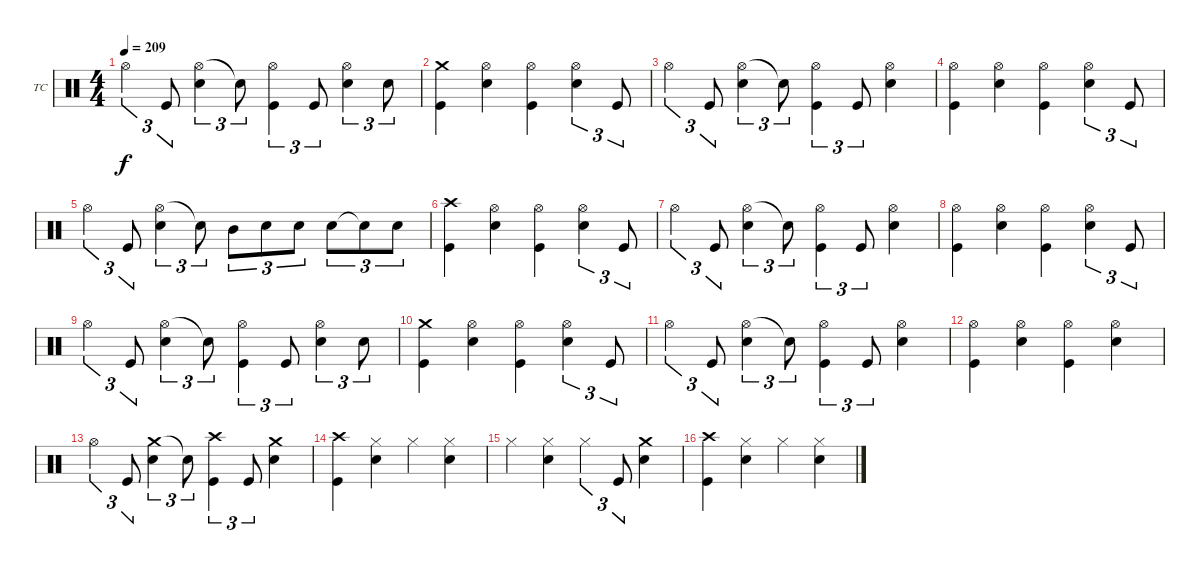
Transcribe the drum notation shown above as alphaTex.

\defaultSystemsLayout 4
\bracketExtendMode groupsimilarinstruments
\firstSystemTrackNameOrientation horizontal
\otherSystemsTrackNameOrientation horizontal
\track ("Drums - Tre Cool" "TC") {instrument percussion}
\staff {score}
\articulation defaults
\ts (4 4)
\tempo 209
\clef neutral
\ks c "Hi-Hat (open)".4{tu (3 2) dy f} "Kick (hit)".8{tu (3 2)}
("Hi-Hat (open)" "Snare (hit) 2").4{tu (3 2)} "Snare (hit) 2"{t}.8{tu (3 2)} ("Hi-Hat (open)" "Kick (hit)").4{tu (3 2)} "Kick (hit)".8{tu (3 2)} ("Hi-Hat (open)" "Snare (hit) 2").4{tu (3 2)} "Snare (hit) 2".8{tu (3 2)} |
("Crash medium (hit)" "Kick (hit)").4 ("Hi-Hat (open)" "Snare (hit) 2").4 ("Hi-Hat (open)" "Kick (hit)").4 ("Hi-Hat (open)" "Snare (hit) 2").4{tu (3 2)} "Kick (hit)".8{tu (3 2)} |
"Hi-Hat (open)".4{tu (3 2)} "Kick (hit)".8{tu (3 2)} ("Hi-Hat (open)" "Snare (hit) 2").4{tu (3 2)} "Snare (hit) 2"{t}.8{tu (3 2)} ("Hi-Hat (open)" "Kick (hit)").4{tu (3 2)} "Kick (hit)".8{tu (3 2)} ("Hi-Hat (open)" "Snare (hit) 2").4 |
("Hi-Hat (open)" "Kick (hit)").4 ("Hi-Hat (open)" "Snare (hit) 2").4 ("Hi-Hat (open)" "Kick (hit)").4 ("Hi-Hat (open)" "Snare (hit) 2").4{tu (3 2)} "Kick (hit)".8{tu (3 2)} |
"Hi-Hat (open)".4{tu (3 2)} "Kick (hit)".8{tu (3 2)} ("Hi-Hat (open)" "Snare (hit) 2").4{tu (3 2)} "Snare (hit) 2"{t}.8{tu (3 2)} "Mid Tom (hit)".8{tu (3 2)} "Snare (hit) 2".8{tu (3 2)} "Snare (hit) 2".8{tu (3 2)} "Snare (hit) 2".8{tu (3 2)} "Snare (hit) 2"{t}.8{tu (3 2)} "Snare (hit) 2".8{tu (3 2)} |
("Crash high (hit)" "Kick (hit)").4 ("Hi-Hat (open)" "Snare (hit) 2").4 ("Hi-Hat (open)" "Kick (hit)").4 ("Hi-Hat (open)" "Snare (hit) 2").4{tu (3 2)} "Kick (hit)".8{tu (3 2)} |
"Hi-Hat (open)".4{tu (3 2)} "Kick (hit)".8{tu (3 2)} ("Hi-Hat (open)" "Snare (hit) 2").4{tu (3 2)} "Snare (hit) 2"{t}.8{tu (3 2)} ("Hi-Hat (open)" "Kick (hit)").4{tu (3 2)} "Kick (hit)".8{tu (3 2)} ("Hi-Hat (open)" "Snare (hit) 2").4 |
("Hi-Hat (open)" "Kick (hit)").4 ("Hi-Hat (open)" "Snare (hit) 2").4 ("Hi-Hat (open)" "Kick (hit)").4 ("Hi-Hat (open)" "Snare (hit) 2").4{tu (3 2)} "Kick (hit)".8{tu (3 2)} |
"Hi-Hat (open)".4{tu (3 2)} "Kick (hit)".8{tu (3 2)} ("Hi-Hat (open)" "Snare (hit) 2").4{tu (3 2)} "Snare (hit) 2"{t}.8{tu (3 2)} ("Hi-Hat (open)" "Kick (hit)").4{tu (3 2)} "Kick (hit)".8{tu (3 2)} ("Hi-Hat (open)" "Snare (hit) 2").4{tu (3 2)} "Snare (hit) 2".8{tu (3 2)} |
("Crash medium (hit)" "Kick (hit)").4 ("Hi-Hat (open)" "Snare (hit) 2").4 ("Hi-Hat (open)" "Kick (hit)").4 ("Hi-Hat (open)" "Snare (hit) 2").4{tu (3 2)} "Kick (hit)".8{tu (3 2)} |
"Hi-Hat (open)".4{tu (3 2)} "Kick (hit)".8{tu (3 2)} ("Hi-Hat (open)" "Snare (hit) 2").4{tu (3 2)} "Snare (hit) 2"{t}.8{tu (3 2)} ("Hi-Hat (open)" "Kick (hit)").4{tu (3 2)} "Kick (hit)".8{tu (3 2)} ("Hi-Hat (open)" "Snare (hit) 2").4 |
("Hi-Hat (open)" "Kick (hit)").4 ("Hi-Hat (open)" "Snare (hit) 2").4 ("Hi-Hat (open)" "Kick (hit)").4 ("Hi-Hat (open)" "Snare (hit) 2").4 |
"Hi-Hat (open)".4{tu (3 2)} "Kick (hit)".8{tu (3 2)} ("Crash medium (hit)" "Snare (hit) 2").4{tu (3 2)} "Snare (hit) 2"{t}.8{tu (3 2)} ("Crash high (hit)" "Kick (hit)").4{tu (3 2)} "Kick (hit)".8{tu (3 2)} ("Crash medium (hit)" "Snare (hit) 2").4 |
("Crash high (hit)" "Kick (hit)").4 ("Hi-Hat (closed)" "Snare (hit) 2").4 "Hi-Hat (closed)".4 ("Hi-Hat (closed)" "Snare (hit) 2").4 |
"Hi-Hat (closed)".4 ("Hi-Hat (closed)" "Snare (hit) 2").4 "Hi-Hat (closed)".4{tu (3 2)} "Kick (hit)".8{tu (3 2)} ("Crash medium (hit)" "Snare (hit) 2").4 |
("Crash high (hit)" "Kick (hit)").4 ("Hi-Hat (closed)" "Snare (hit) 2").4 "Hi-Hat (closed)".4 ("Hi-Hat (closed)" "Snare (hit) 2").4
